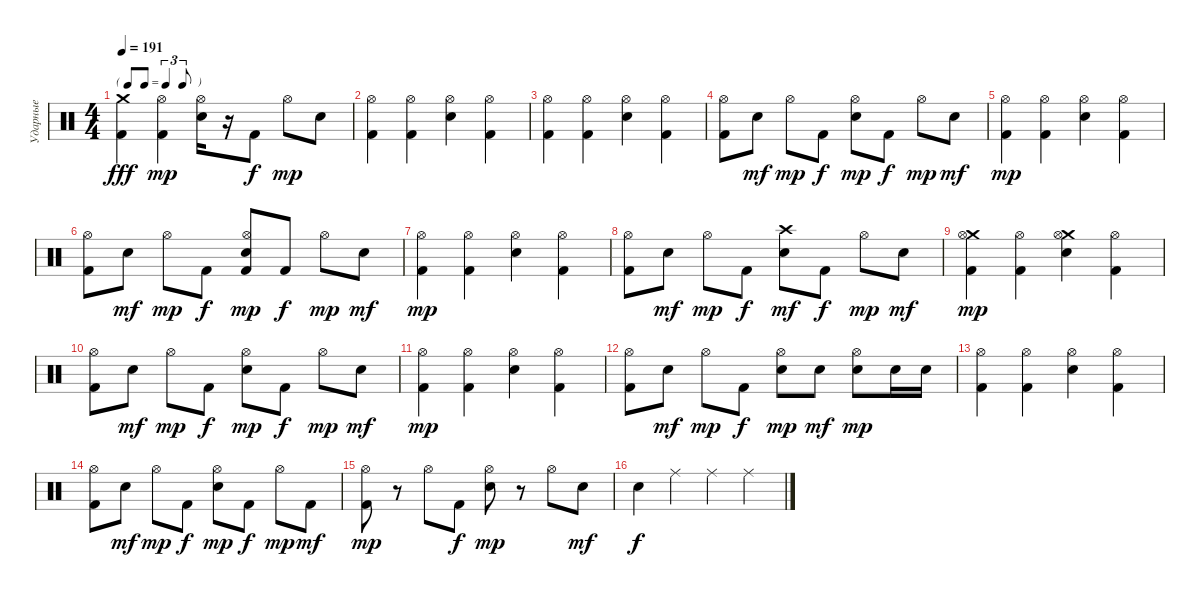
\track ("Ударные" "Ударные") {instrument percussion}
\staff {score}
\articulation defaults
\ts (4 4)
\tf triplet8th
\tempo 191
\clef neutral
\ks c
("Crash medium (hit)" "Kick (hit) 2").4{dy fff} ("Kick (hit) 2" "Hi-Hat (open)").4{dy mp} ("Snare (hit) 2" "Hi-Hat (open)").16 r.16 "Kick (hit) 2".8{dy f} "Hi-Hat (open)".8{dy mp} "Snare (hit) 2".8 |
("Kick (hit) 2" "Hi-Hat (open)").4 ("Kick (hit) 2" "Hi-Hat (open)").4 ("Snare (hit) 2" "Hi-Hat (open)").4 ("Kick (hit) 2" "Hi-Hat (open)").4 |
("Kick (hit) 2" "Hi-Hat (open)").4 ("Kick (hit) 2" "Hi-Hat (open)").4 ("Snare (hit) 2" "Hi-Hat (open)").4 ("Kick (hit) 2" "Hi-Hat (open)").4 |
("Kick (hit) 2" "Hi-Hat (open)").8 "Snare (hit) 2".8{dy mf} "Hi-Hat (open)".8{dy mp} "Kick (hit) 2".8{dy f} ("Snare (hit) 2" "Hi-Hat (open)").8{dy mp} "Kick (hit) 2".8{dy f} "Hi-Hat (open)".8{dy mp} "Snare (hit) 2".8{dy mf} |
("Kick (hit) 2" "Hi-Hat (open)").4{dy mp} ("Kick (hit) 2" "Hi-Hat (open)").4 ("Snare (hit) 2" "Hi-Hat (open)").4 ("Kick (hit) 2" "Hi-Hat (open)").4 |
("Kick (hit) 2" "Hi-Hat (open)").8 "Snare (hit) 2".8{dy mf} "Hi-Hat (open)".8{dy mp} "Kick (hit) 2".8{dy f} ("Snare (hit) 2" "Kick (hit) 2" "Hi-Hat (open)").8{dy mp} "Kick (hit) 2".8{dy f} "Hi-Hat (open)".8{dy mp} "Snare (hit) 2".8{dy mf} |
("Kick (hit) 2" "Hi-Hat (open)").4{dy mp} ("Kick (hit) 2" "Hi-Hat (open)").4 ("Snare (hit) 2" "Hi-Hat (open)").4 ("Kick (hit) 2" "Hi-Hat (open)").4 |
("Kick (hit) 2" "Hi-Hat (open)").8 "Snare (hit) 2".8{dy mf} "Hi-Hat (open)".8{dy mp} "Kick (hit) 2".8{dy f} ("Crash high (hit)" "Snare (hit) 2").8{dy mf} "Kick (hit) 2".8{dy f} "Hi-Hat (open)".8{dy mp} "Snare (hit) 2".8{dy mf} |
("Crash medium (hit)" "Kick (hit) 2" "Hi-Hat (open)").4{dy mp} ("Kick (hit) 2" "Hi-Hat (open)").4 ("Crash medium (hit)" "Snare (hit) 2" "Hi-Hat (open)").4 ("Kick (hit) 2" "Hi-Hat (open)").4 |
("Kick (hit) 2" "Hi-Hat (open)").8 "Snare (hit) 2".8{dy mf} "Hi-Hat (open)".8{dy mp} "Kick (hit) 2".8{dy f} ("Snare (hit) 2" "Hi-Hat (open)").8{dy mp} "Kick (hit) 2".8{dy f} "Hi-Hat (open)".8{dy mp} "Snare (hit) 2".8{dy mf} |
("Kick (hit) 2" "Hi-Hat (open)").4{dy mp} ("Kick (hit) 2" "Hi-Hat (open)").4 ("Snare (hit) 2" "Hi-Hat (open)").4 ("Kick (hit) 2" "Hi-Hat (open)").4 |
("Kick (hit) 2" "Hi-Hat (open)").8 "Snare (hit) 2".8{dy mf} "Hi-Hat (open)".8{dy mp} "Kick (hit) 2".8{dy f} ("Snare (hit) 2" "Hi-Hat (open)").8{dy mp} "Snare (hit) 2".8{dy mf} ("Snare (hit) 2" "Hi-Hat (open)").8{dy mp} "Snare (hit) 2".16 "Snare (hit) 2".16 |
("Kick (hit) 2" "Hi-Hat (open)").4 ("Kick (hit) 2" "Hi-Hat (open)").4 ("Snare (hit) 2" "Hi-Hat (open)").4 ("Kick (hit) 2" "Hi-Hat (open)").4 |
("Kick (hit) 2" "Hi-Hat (open)").8 "Snare (hit) 2".8{dy mf} "Hi-Hat (open)".8{dy mp} "Kick (hit) 2".8{dy f} ("Snare (hit) 2" "Hi-Hat (open)").8{dy mp} "Kick (hit) 2".8{dy f} "Hi-Hat (open)".8{dy mp} "Kick (hit) 2".8{dy mf} |
("Kick (hit) 2" "Hi-Hat (open)").8{dy mp} r.8 "Hi-Hat (open)".8 "Kick (hit) 2".8{dy f} ("Snare (hit) 2" "Hi-Hat (open)").8{dy mp} r.8 "Hi-Hat (open)".8 "Snare (hit) 2".8{dy mf} |
"Snare (hit) 2".4{dy f} "Ride (middle)".4 "Ride (middle)".4 "Ride (middle)".4
